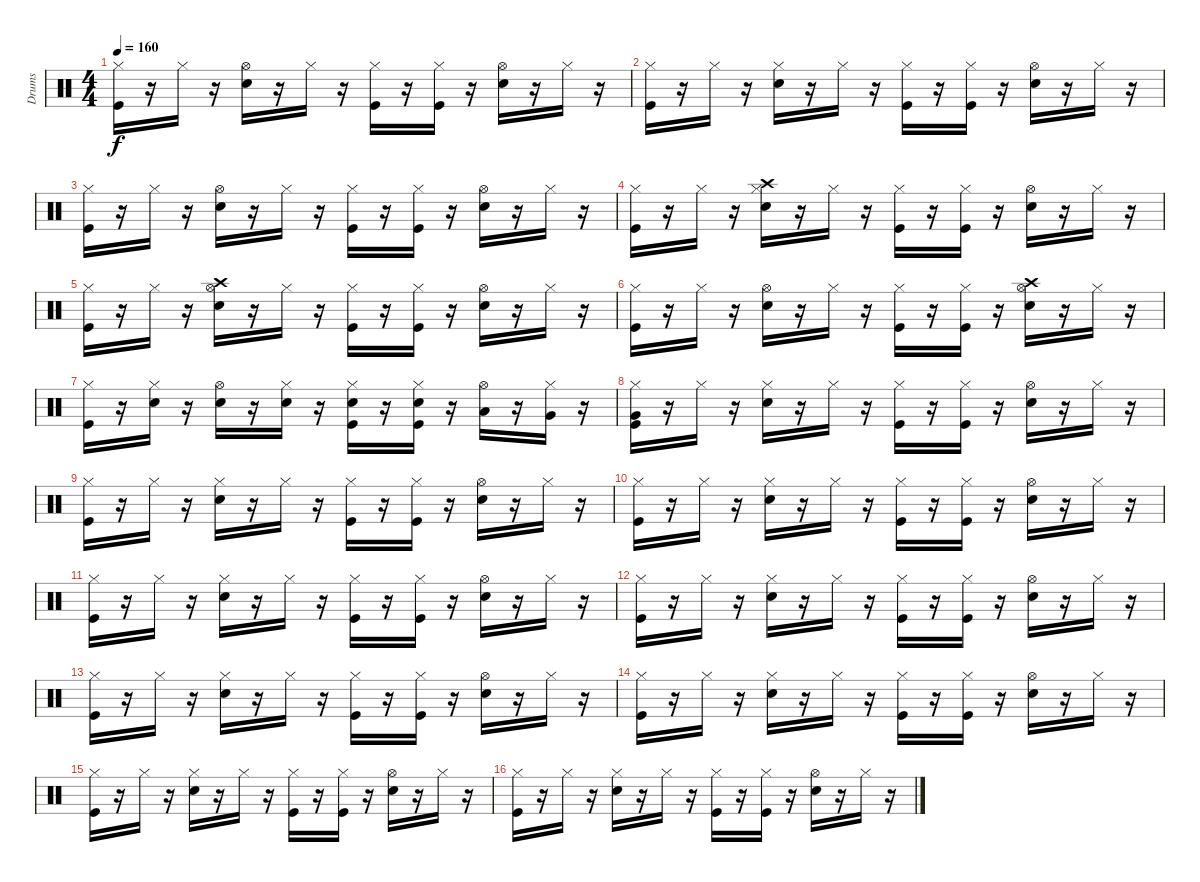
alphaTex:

\track ("Drums" "Drums") {instrument percussion}
\staff {score}
\articulation defaults
\ts (4 4)
\tempo 160
\clef neutral
\ks c
("Hi-Hat (closed)" "Kick (hit)").16{dy f} r.16 "Hi-Hat (closed)".16 r.16 ("Hi-Hat (open)" "Snare (hit) 2").16 r.16 "Hi-Hat (closed)".16 r.16 ("Hi-Hat (closed)" "Kick (hit)").16 r.16 ("Kick (hit)" "Hi-Hat (closed)").16 r.16 ("Hi-Hat (open)" "Snare (hit) 2").16 r.16 "Hi-Hat (closed)".16 r.16 |
("Hi-Hat (closed)" "Kick (hit)").16 r.16 "Hi-Hat (closed)".16 r.16 ("Hi-Hat (closed)" "Snare (hit) 2").16 r.16 "Hi-Hat (closed)".16 r.16 ("Hi-Hat (closed)" "Kick (hit)").16 r.16 ("Kick (hit)" "Hi-Hat (closed)").16 r.16 ("Hi-Hat (open)" "Snare (hit) 2").16 r.16 "Hi-Hat (closed)".16 r.16 |
("Hi-Hat (closed)" "Kick (hit)").16 r.16 "Hi-Hat (closed)".16 r.16 ("Hi-Hat (open)" "Snare (hit) 2").16 r.16 "Hi-Hat (closed)".16 r.16 ("Hi-Hat (closed)" "Kick (hit)").16 r.16 ("Kick (hit)" "Hi-Hat (closed)").16 r.16 ("Hi-Hat (open)" "Snare (hit) 2").16 r.16 "Hi-Hat (closed)".16 r.16 |
("Hi-Hat (closed)" "Kick (hit)").16 r.16 "Hi-Hat (closed)".16 r.16 ("Crash high (hit)" "Hi-Hat (closed)" "Snare (hit) 2").16 r.16 "Hi-Hat (closed)".16 r.16 ("Hi-Hat (closed)" "Kick (hit)").16 r.16 ("Kick (hit)" "Hi-Hat (closed)").16 r.16 ("Hi-Hat (open)" "Snare (hit) 2").16 r.16 "Hi-Hat (closed)".16 r.16 |
("Hi-Hat (closed)" "Kick (hit)").16 r.16 "Hi-Hat (closed)".16 r.16 ("Crash high (hit)" "Hi-Hat (open)" "Snare (hit) 2").16 r.16 "Hi-Hat (closed)".16 r.16 ("Hi-Hat (closed)" "Kick (hit)").16 r.16 ("Kick (hit)" "Hi-Hat (closed)").16 r.16 ("Hi-Hat (open)" "Snare (hit) 2").16 r.16 "Hi-Hat (closed)".16 r.16 |
("Hi-Hat (closed)" "Kick (hit)").16 r.16 "Hi-Hat (closed)".16 r.16 ("Hi-Hat (open)" "Snare (hit) 2").16 r.16 "Hi-Hat (closed)".16 r.16 ("Hi-Hat (closed)" "Kick (hit)").16 r.16 ("Kick (hit)" "Hi-Hat (closed)").16 r.16 ("Crash high (hit)" "Hi-Hat (open)" "Snare (hit) 2").16 r.16 "Hi-Hat (closed)".16 r.16 |
("Hi-Hat (closed)" "Kick (hit)").16 r.16 ("Snare (hit) 2" "Hi-Hat (closed)").16 r.16 ("Hi-Hat (open)" "Snare (hit) 2").16 r.16 ("Snare (hit) 2" "Hi-Hat (closed)").16 r.16 ("Snare (hit) 2" "Hi-Hat (closed)" "Kick (hit)").16 r.16 ("Snare (hit) 2" "Kick (hit)" "Hi-Hat (closed)").16 r.16 ("Low Tom (hit)" "Hi-Hat (open)").16 r.16 ("Very Low Tom (hit)" "Hi-Hat (closed)").16 r.16 |
("Very Low Tom (hit)" "Hi-Hat (closed)" "Kick (hit)").16 r.16 "Hi-Hat (closed)".16 r.16 ("Hi-Hat (closed)" "Snare (hit) 2").16 r.16 "Hi-Hat (closed)".16 r.16 ("Hi-Hat (closed)" "Kick (hit)").16 r.16 ("Kick (hit)" "Hi-Hat (closed)").16 r.16 ("Hi-Hat (open)" "Snare (hit) 2").16 r.16 "Hi-Hat (closed)".16 r.16 |
("Hi-Hat (closed)" "Kick (hit)").16 r.16 "Hi-Hat (closed)".16 r.16 ("Hi-Hat (closed)" "Snare (hit) 2").16 r.16 "Hi-Hat (closed)".16 r.16 ("Hi-Hat (closed)" "Kick (hit)").16 r.16 ("Kick (hit)" "Hi-Hat (closed)").16 r.16 ("Hi-Hat (open)" "Snare (hit) 2").16 r.16 "Hi-Hat (closed)".16 r.16 |
("Hi-Hat (closed)" "Kick (hit)").16 r.16 "Hi-Hat (closed)".16 r.16 ("Hi-Hat (closed)" "Snare (hit) 2").16 r.16 "Hi-Hat (closed)".16 r.16 ("Hi-Hat (closed)" "Kick (hit)").16 r.16 ("Kick (hit)" "Hi-Hat (closed)").16 r.16 ("Hi-Hat (open)" "Snare (hit) 2").16 r.16 "Hi-Hat (closed)".16 r.16 |
("Hi-Hat (closed)" "Kick (hit)").16 r.16 "Hi-Hat (closed)".16 r.16 ("Hi-Hat (closed)" "Snare (hit) 2").16 r.16 "Hi-Hat (closed)".16 r.16 ("Hi-Hat (closed)" "Kick (hit)").16 r.16 ("Kick (hit)" "Hi-Hat (closed)").16 r.16 ("Hi-Hat (open)" "Snare (hit) 2").16 r.16 "Hi-Hat (closed)".16 r.16 |
("Hi-Hat (closed)" "Kick (hit)").16 r.16 "Hi-Hat (closed)".16 r.16 ("Hi-Hat (closed)" "Snare (hit) 2").16 r.16 "Hi-Hat (closed)".16 r.16 ("Hi-Hat (closed)" "Kick (hit)").16 r.16 ("Kick (hit)" "Hi-Hat (closed)").16 r.16 ("Hi-Hat (open)" "Snare (hit) 2").16 r.16 "Hi-Hat (closed)".16 r.16 |
("Hi-Hat (closed)" "Kick (hit)").16 r.16 "Hi-Hat (closed)".16 r.16 ("Hi-Hat (closed)" "Snare (hit) 2").16 r.16 "Hi-Hat (closed)".16 r.16 ("Hi-Hat (closed)" "Kick (hit)").16 r.16 ("Kick (hit)" "Hi-Hat (closed)").16 r.16 ("Hi-Hat (open)" "Snare (hit) 2").16 r.16 "Hi-Hat (closed)".16 r.16 |
("Hi-Hat (closed)" "Kick (hit)").16 r.16 "Hi-Hat (closed)".16 r.16 ("Hi-Hat (closed)" "Snare (hit) 2").16 r.16 "Hi-Hat (closed)".16 r.16 ("Hi-Hat (closed)" "Kick (hit)").16 r.16 ("Kick (hit)" "Hi-Hat (closed)").16 r.16 ("Hi-Hat (open)" "Snare (hit) 2").16 r.16 "Hi-Hat (closed)".16 r.16 |
("Hi-Hat (closed)" "Kick (hit)").16 r.16 "Hi-Hat (closed)".16 r.16 ("Hi-Hat (closed)" "Snare (hit) 2").16 r.16 "Hi-Hat (closed)".16 r.16 ("Hi-Hat (closed)" "Kick (hit)").16 r.16 ("Kick (hit)" "Hi-Hat (closed)").16 r.16 ("Hi-Hat (open)" "Snare (hit) 2").16 r.16 "Hi-Hat (closed)".16 r.16 |
("Hi-Hat (closed)" "Kick (hit)").16 r.16 "Hi-Hat (closed)".16 r.16 ("Hi-Hat (closed)" "Snare (hit) 2").16 r.16 "Hi-Hat (closed)".16 r.16 ("Hi-Hat (closed)" "Kick (hit)").16 r.16 ("Kick (hit)" "Hi-Hat (closed)").16 r.16 ("Hi-Hat (open)" "Snare (hit) 2").16 r.16 "Hi-Hat (closed)".16 r.16
